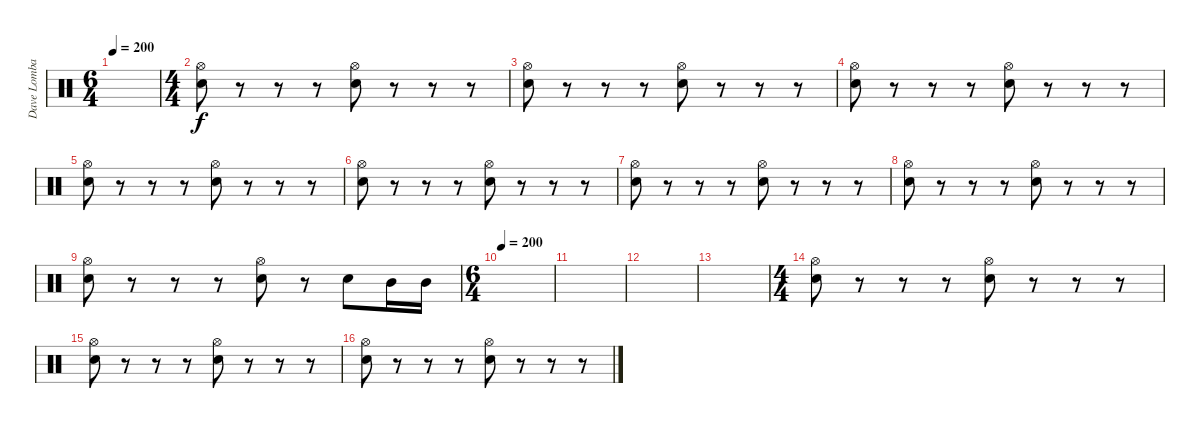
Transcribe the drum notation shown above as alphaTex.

\track ("Dave Lombardo:" "Dave Lomba") {instrument percussion}
\staff {score}
\articulation defaults
\ts (6 4)
\tempo 200
\clef neutral
\ks c
|
\ts (4 4)
("Hi-Hat (open)" "Electric Snare (hit)").8 r.8 r.8 r.8 ("Hi-Hat (open)" "Electric Snare (hit)").8 r.8 r.8 r.8 |
("Hi-Hat (open)" "Electric Snare (hit)").8 r.8 r.8 r.8 ("Hi-Hat (open)" "Electric Snare (hit)").8 r.8 r.8 r.8 |
("Hi-Hat (open)" "Electric Snare (hit)").8 r.8 r.8 r.8 ("Hi-Hat (open)" "Electric Snare (hit)").8 r.8 r.8 r.8 |
("Hi-Hat (open)" "Electric Snare (hit)").8 r.8 r.8 r.8 ("Hi-Hat (open)" "Electric Snare (hit)").8 r.8 r.8 r.8 |
("Hi-Hat (open)" "Electric Snare (hit)").8 r.8 r.8 r.8 ("Hi-Hat (open)" "Electric Snare (hit)").8 r.8 r.8 r.8 |
("Hi-Hat (open)" "Electric Snare (hit)").8 r.8 r.8 r.8 ("Hi-Hat (open)" "Electric Snare (hit)").8 r.8 r.8 r.8 |
("Hi-Hat (open)" "Electric Snare (hit)").8 r.8 r.8 r.8 ("Hi-Hat (open)" "Electric Snare (hit)").8 r.8 r.8 r.8 |
("Hi-Hat (open)" "Electric Snare (hit)").8 r.8 r.8 r.8 ("Hi-Hat (open)" "Electric Snare (hit)").8 r.8 "Electric Snare (hit)".8 "Mid Tom (hit)".16 "Mid Tom (hit)".16 |
\ts (6 4)
\tempo 200
|
|
|
|
\ts (4 4)
("Hi-Hat (open)" "Electric Snare (hit)").8 r.8 r.8 r.8 ("Hi-Hat (open)" "Electric Snare (hit)").8 r.8 r.8 r.8 |
("Hi-Hat (open)" "Electric Snare (hit)").8 r.8 r.8 r.8 ("Hi-Hat (open)" "Electric Snare (hit)").8 r.8 r.8 r.8 |
("Hi-Hat (open)" "Electric Snare (hit)").8 r.8 r.8 r.8 ("Hi-Hat (open)" "Electric Snare (hit)").8 r.8 r.8 r.8
